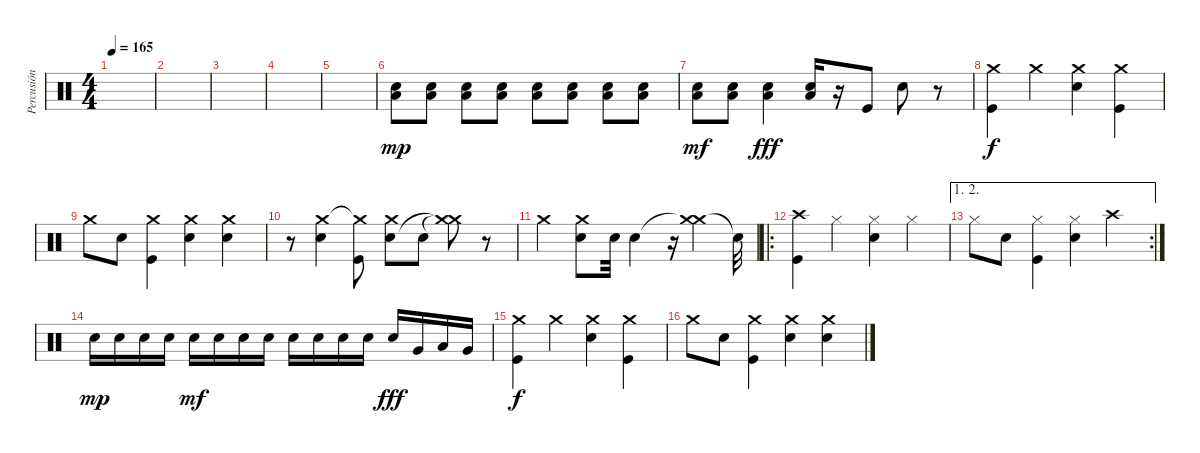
\track ("Percusión" "Percusión") {instrument percussion}
\staff {score}
\articulation defaults
\ts (4 4)
\tempo 165
\clef neutral
\ks c
|
|
|
|
|
("Electric Snare (hit)" "Low Floor Tom (hit)").8{dy mp} ("Electric Snare (hit)" "Low Floor Tom (hit)").8 ("Electric Snare (hit)" "Low Floor Tom (hit)").8 ("Electric Snare (hit)" "Low Floor Tom (hit)").8 ("Electric Snare (hit)" "Low Floor Tom (hit)").8 ("Electric Snare (hit)" "Low Floor Tom (hit)").8 ("Electric Snare (hit)" "Low Floor Tom (hit)").8 ("Electric Snare (hit)" "Low Floor Tom (hit)").8 |
("Electric Snare (hit)" "Low Floor Tom (hit)").8{dy mf} ("Electric Snare (hit)" "Low Floor Tom (hit)").8 ("Electric Snare (hit)" "Low Floor Tom (hit)").4{dy fff} ("Electric Snare (hit)" "Low Floor Tom (hit)").16 r.16 "Kick (hit)".8 "Electric Snare (hit)".8 r.8 |
("Crash medium (hit)" "Kick (hit)").4{dy f} "Crash medium (hit)".4 ("Crash medium (hit)" "Electric Snare (hit)").4 ("Crash medium (hit)" "Kick (hit)").4 |
"Crash medium (hit)".8 "Electric Snare (hit)".8 ("Crash medium (hit)" "Kick (hit)").4 ("Crash medium (hit)" "Electric Snare (hit)").4 ("Crash medium (hit)" "Electric Snare (hit)").4 |
r.8 ("Crash medium (hit)" "Electric Snare (hit)").4 ("Crash medium (hit)"{t} "Kick (hit)").8 ("Crash medium (hit)" "Electric Snare (hit)").8 "Electric Snare (hit)".8 ("Crash medium (hit)"{t} "Crash medium (hit)"{t}).8 r.8 |
"Crash medium (hit)".4 ("Crash medium (hit)" "Electric Snare (hit)").8 "Electric Snare (hit)".32 "Electric Snare (hit)".4 r.16 ("Crash medium (hit)"{t} "Crash medium (hit)").4 "Snare (hit)"{t}.32 |
\ro
("Crash high (hit)" "Kick (hit)").4 "Hi-Hat (closed)".4 ("Electric Snare (hit)" "Hi-Hat (closed)").4 "Hi-Hat (closed)".4 |
\ae (1 2)
\rc 2 "Hi-Hat (closed)".8 "Electric Snare (hit)".8
("Hi-Hat (closed)" "Kick (hit)").4 ("Electric Snare (hit)" "Hi-Hat (closed)").4 "Crash high (hit)".4 |
"Electric Snare (hit)".16{dy mp} "Electric Snare (hit)".16 "Electric Snare (hit)".16 "Electric Snare (hit)".16 "Electric Snare (hit)".16{dy mf} "Electric Snare (hit)".16 "Electric Snare (hit)".16 "Electric Snare (hit)".16 "Electric Snare (hit)".16 "Electric Snare (hit)".16 "Electric Snare (hit)".16 "Electric Snare (hit)".16 "Electric Snare (hit)".16{dy fff} "Very Low Tom (hit)".16 "Low Floor Tom (hit)".16 "Very Low Tom (hit)".16 |
("Crash medium (hit)" "Kick (hit)").4{dy f} "Crash medium (hit)".4 ("Crash medium (hit)" "Electric Snare (hit)").4 ("Crash medium (hit)" "Kick (hit)").4 |
"Crash medium (hit)".8 "Electric Snare (hit)".8 ("Crash medium (hit)" "Kick (hit)").4 ("Crash medium (hit)" "Electric Snare (hit)").4 ("Crash medium (hit)" "Electric Snare (hit)").4
